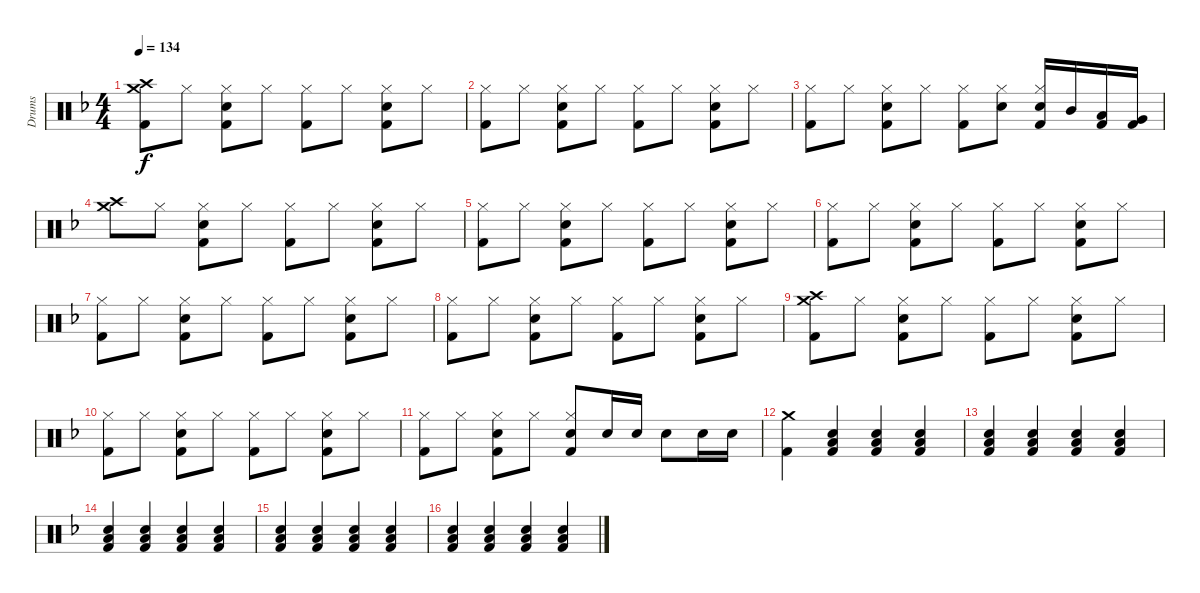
\track ("Drums" "Drums") {instrument percussion}
\staff {score}
\articulation defaults
\ts (4 4)
\tempo 134
\clef neutral
\ks f
("Crash high (hit)" "Kick (hit) 2" "Crash medium (hit)").8{dy f} "Hi-Hat (closed)".8 ("Hi-Hat (closed)" "Kick (hit) 2" "Snare (hit) 2").8 "Hi-Hat (closed)".8 ("Hi-Hat (closed)" "Kick (hit) 2").8 "Hi-Hat (closed)".8 ("Hi-Hat (closed)" "Kick (hit) 2" "Snare (hit) 2").8 "Hi-Hat (closed)".8 |
("Hi-Hat (closed)" "Kick (hit) 2").8 "Hi-Hat (closed)".8 ("Hi-Hat (closed)" "Kick (hit) 2" "Snare (hit) 2").8 "Hi-Hat (closed)".8 ("Hi-Hat (closed)" "Kick (hit) 2").8 "Hi-Hat (closed)".8 ("Hi-Hat (closed)" "Kick (hit) 2" "Snare (hit) 2").8 "Hi-Hat (closed)".8 |
("Hi-Hat (closed)" "Kick (hit) 2").8 "Hi-Hat (closed)".8 ("Hi-Hat (closed)" "Kick (hit) 2" "Snare (hit) 2").8 "Hi-Hat (closed)".8 ("Hi-Hat (closed)" "Kick (hit) 2").8 ("Hi-Hat (closed)" "Snare (hit) 2").8 ("Hi-Hat (closed)" "Kick (hit) 2" "Snare (hit) 2").16 "Mid Tom (hit)".16 ("Low Tom (hit)" "Kick (hit) 2").16 ("Very Low Tom (hit)" "Kick (hit) 2").16 |
("Crash high (hit)" "Crash medium (hit)").8 "Hi-Hat (closed)".8 ("Hi-Hat (closed)" "Kick (hit) 2" "Snare (hit) 2").8 "Hi-Hat (closed)".8 ("Hi-Hat (closed)" "Kick (hit) 2").8 "Hi-Hat (closed)".8 ("Hi-Hat (closed)" "Kick (hit) 2" "Snare (hit) 2").8 "Hi-Hat (closed)".8 |
("Hi-Hat (closed)" "Kick (hit) 2").8 "Hi-Hat (closed)".8 ("Hi-Hat (closed)" "Kick (hit) 2" "Snare (hit) 2").8 "Hi-Hat (closed)".8 ("Hi-Hat (closed)" "Kick (hit) 2").8 "Hi-Hat (closed)".8 ("Hi-Hat (closed)" "Kick (hit) 2" "Snare (hit) 2").8 "Hi-Hat (closed)".8 |
("Hi-Hat (closed)" "Kick (hit) 2").8 "Hi-Hat (closed)".8 ("Hi-Hat (closed)" "Kick (hit) 2" "Snare (hit) 2").8 "Hi-Hat (closed)".8 ("Hi-Hat (closed)" "Kick (hit) 2").8 "Hi-Hat (closed)".8 ("Hi-Hat (closed)" "Kick (hit) 2" "Snare (hit) 2").8 "Hi-Hat (closed)".8 |
("Hi-Hat (closed)" "Kick (hit) 2").8 "Hi-Hat (closed)".8 ("Hi-Hat (closed)" "Kick (hit) 2" "Snare (hit) 2").8 "Hi-Hat (closed)".8 ("Hi-Hat (closed)" "Kick (hit) 2").8 "Hi-Hat (closed)".8 ("Hi-Hat (closed)" "Kick (hit) 2" "Snare (hit) 2").8 "Hi-Hat (closed)".8 |
("Hi-Hat (closed)" "Kick (hit) 2").8 "Hi-Hat (closed)".8 ("Hi-Hat (closed)" "Kick (hit) 2" "Snare (hit) 2").8 "Hi-Hat (closed)".8 ("Hi-Hat (closed)" "Kick (hit) 2").8 "Hi-Hat (closed)".8 ("Hi-Hat (closed)" "Kick (hit) 2" "Snare (hit) 2").8 "Hi-Hat (closed)".8 |
("Crash medium (hit)" "Kick (hit) 2" "Crash high (hit)").8 "Hi-Hat (closed)".8 ("Hi-Hat (closed)" "Kick (hit) 2" "Snare (hit) 2").8 "Hi-Hat (closed)".8 ("Hi-Hat (closed)" "Kick (hit) 2").8 "Hi-Hat (closed)".8 ("Hi-Hat (closed)" "Kick (hit) 2" "Snare (hit) 2").8 "Hi-Hat (closed)".8 |
("Hi-Hat (closed)" "Kick (hit) 2").8 "Hi-Hat (closed)".8 ("Hi-Hat (closed)" "Kick (hit) 2" "Snare (hit) 2").8 "Hi-Hat (closed)".8 ("Hi-Hat (closed)" "Kick (hit) 2").8 "Hi-Hat (closed)".8 ("Hi-Hat (closed)" "Kick (hit) 2" "Snare (hit) 2").8 "Hi-Hat (closed)".8 |
("Hi-Hat (closed)" "Kick (hit) 2").8 "Hi-Hat (closed)".8 ("Hi-Hat (closed)" "Kick (hit) 2" "Snare (hit) 2").8 "Hi-Hat (closed)".8 ("Hi-Hat (closed)" "Kick (hit) 2" "Snare (hit) 2").8 "Snare (hit) 2".16 "Snare (hit) 2".16 "Snare (hit) 2".8 "Snare (hit) 2".16 "Snare (hit) 2".16 |
("Crash medium (hit)" "Kick (hit) 2").4 ("Low Tom (hit)" "Kick (hit) 2" "Snare (hit) 2").4 ("Low Tom (hit)" "Kick (hit) 2" "Snare (hit) 2").4 ("Low Tom (hit)" "Kick (hit) 2" "Snare (hit) 2").4 |
("Low Tom (hit)" "Kick (hit) 2" "Snare (hit) 2").4 ("Low Tom (hit)" "Kick (hit) 2" "Snare (hit) 2").4 ("Low Tom (hit)" "Kick (hit) 2" "Snare (hit) 2").4 ("Low Tom (hit)" "Kick (hit) 2" "Snare (hit) 2").4 |
("Low Tom (hit)" "Kick (hit) 2" "Snare (hit) 2").4 ("Low Tom (hit)" "Kick (hit) 2" "Snare (hit) 2").4 ("Low Tom (hit)" "Kick (hit) 2" "Snare (hit) 2").4 ("Low Tom (hit)" "Kick (hit) 2" "Snare (hit) 2").4 |
("Low Tom (hit)" "Kick (hit) 2" "Snare (hit) 2").4 ("Low Tom (hit)" "Kick (hit) 2" "Snare (hit) 2").4 ("Low Tom (hit)" "Kick (hit) 2" "Snare (hit) 2").4 ("Low Tom (hit)" "Kick (hit) 2" "Snare (hit) 2").4 |
("Low Tom (hit)" "Kick (hit) 2" "Snare (hit) 2").4 ("Low Tom (hit)" "Kick (hit) 2" "Snare (hit) 2").4 ("Low Tom (hit)" "Kick (hit) 2" "Snare (hit) 2").4 ("Low Tom (hit)" "Kick (hit) 2" "Snare (hit) 2").4
